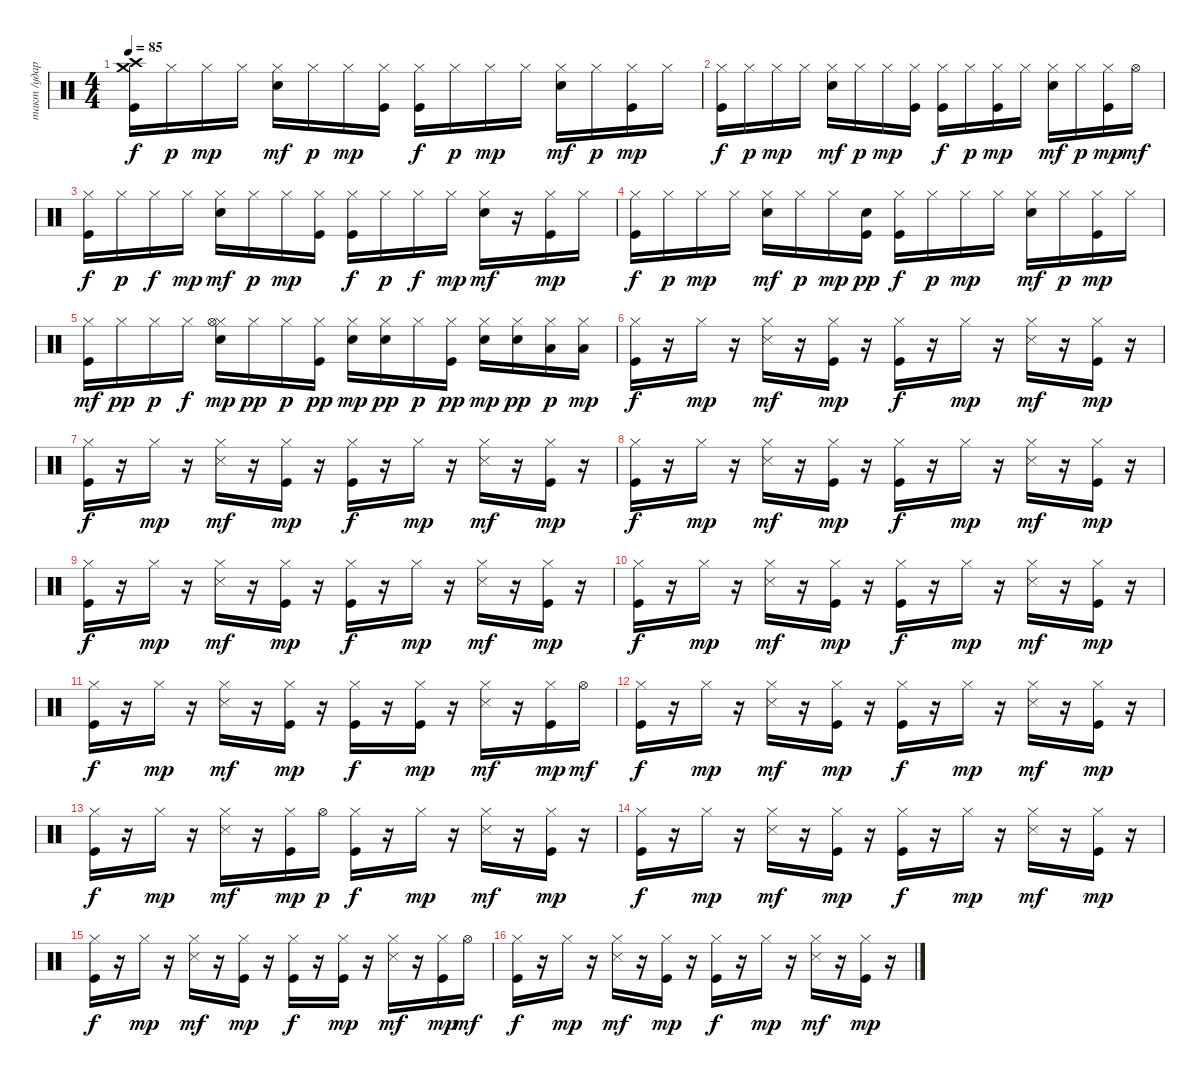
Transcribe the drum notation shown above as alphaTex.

\track ("такт /ударные/" "такт /удар") {instrument percussion}
\staff {score}
\articulation defaults
\ts (4 4)
\tempo 85
\clef neutral
\ks c
("Crash medium (hit)" "Kick (hit)" "Crash high (hit)").16{dy f} "Hi-Hat (closed)".16{dy p} "Hi-Hat (closed)".16{dy mp} "Hi-Hat (closed)".16 ("Snare (hit) 2" "Hi-Hat (closed)").16{dy mf} "Hi-Hat (closed)".16{dy p} "Hi-Hat (closed)".16{dy mp} ("Kick (hit)" "Hi-Hat (closed)").16 ("Kick (hit)" "Hi-Hat (closed)").16{dy f} "Hi-Hat (closed)".16{dy p} "Hi-Hat (closed)".16{dy mp} "Hi-Hat (closed)".16 ("Snare (hit) 2" "Hi-Hat (closed)").16{dy mf} "Hi-Hat (closed)".16{dy p} ("Kick (hit)" "Hi-Hat (closed)").16{dy mp} "Hi-Hat (closed)".16 |
("Kick (hit)" "Hi-Hat (closed)").16{dy f} "Hi-Hat (closed)".16{dy p} "Hi-Hat (closed)".16{dy mp} "Hi-Hat (closed)".16 ("Snare (hit) 2" "Hi-Hat (closed)").16{dy mf} "Hi-Hat (closed)".16{dy p} "Hi-Hat (closed)".16{dy mp} ("Kick (hit)" "Hi-Hat (closed)").16 ("Kick (hit)" "Hi-Hat (closed)").16{dy f} "Hi-Hat (closed)".16{dy p} ("Kick (hit)" "Hi-Hat (closed)").16{dy mp} "Hi-Hat (closed)".16 ("Snare (hit) 2" "Hi-Hat (closed)").16{dy mf} "Hi-Hat (closed)".16{dy p} ("Kick (hit)" "Hi-Hat (closed)").16{dy mp} "Hi-Hat (open)".16{dy mf} |
("Kick (hit)" "Hi-Hat (closed)").16{dy f} "Hi-Hat (closed)".16{dy p} "Hi-Hat (closed)".16{dy f} "Hi-Hat (closed)".16{dy mp} ("Snare (hit) 2" "Hi-Hat (closed)").16{dy mf} "Hi-Hat (closed)".16{dy p} "Hi-Hat (closed)".16{dy mp} ("Kick (hit)" "Hi-Hat (closed)").16 ("Kick (hit)" "Hi-Hat (closed)").16{dy f} "Hi-Hat (closed)".16{dy p} "Hi-Hat (closed)".16{dy f} "Hi-Hat (closed)".16{dy mp} ("Snare (hit) 2" "Hi-Hat (closed)").16{dy mf} r.16 ("Kick (hit)" "Hi-Hat (closed)").16{dy mp} "Hi-Hat (closed)".16 |
("Kick (hit)" "Hi-Hat (closed)").16{dy f} "Hi-Hat (closed)".16{dy p} "Hi-Hat (closed)".16{dy mp} "Hi-Hat (closed)".16 ("Snare (hit) 2" "Hi-Hat (closed)").16{dy mf} "Hi-Hat (closed)".16{dy p} "Hi-Hat (closed)".16{dy mp} ("Kick (hit)" "Snare (hit) 2").16{dy pp} ("Kick (hit)" "Hi-Hat (closed)").16{dy f} "Hi-Hat (closed)".16{dy p} "Hi-Hat (closed)".16{dy mp} "Hi-Hat (closed)".16 ("Snare (hit) 2" "Hi-Hat (closed)").16{dy mf} "Hi-Hat (closed)".16{dy p} ("Kick (hit)" "Hi-Hat (closed)").16{dy mp} "Hi-Hat (closed)".16 |
("Kick (hit)" "Hi-Hat (closed)").16{dy mf} "Hi-Hat (closed)".16{dy pp} "Hi-Hat (closed)".16{dy p} "Hi-Hat (closed)".16{dy f} ("Snare (hit) 2" "Hi-Hat (closed)" "Hi-Hat (open)").16{dy mp} "Hi-Hat (closed)".16{dy pp} "Hi-Hat (closed)".16{dy p} ("Kick (hit)" "Hi-Hat (closed)").16{dy pp} ("Snare (hit) 2" "Hi-Hat (closed)").16{dy mp} ("Snare (hit) 2" "Hi-Hat (closed)").16{dy pp} "Hi-Hat (closed)".16{dy p} ("Kick (hit)" "Hi-Hat (closed)").16{dy pp} ("Snare (hit) 2" "Hi-Hat (closed)").16{dy mp} ("Snare (hit) 2" "Hi-Hat (closed)").16{dy pp} ("Hi-Hat (closed)" "Low Floor Tom (hit)").16{dy p} ("Hi-Hat (closed)" "Low Floor Tom (hit)").16{dy mp} |
("Kick (hit)" "Hi-Hat (closed)").16{dy f} r.16 "Hi-Hat (closed)".16{dy mp} r.16 ("Hi-Hat (closed)" "Snare (side stick) 3").16{dy mf} r.16 ("Kick (hit)" "Hi-Hat (closed)").16{dy mp} r.16 ("Kick (hit)" "Hi-Hat (closed)").16{dy f} r.16 "Hi-Hat (closed)".16{dy mp} r.16 ("Hi-Hat (closed)" "Snare (side stick) 3").16{dy mf} r.16 ("Kick (hit)" "Hi-Hat (closed)").16{dy mp} r.16 |
("Kick (hit)" "Hi-Hat (closed)").16{dy f} r.16 "Hi-Hat (closed)".16{dy mp} r.16 ("Hi-Hat (closed)" "Snare (side stick) 3").16{dy mf} r.16 ("Kick (hit)" "Hi-Hat (closed)").16{dy mp} r.16 ("Kick (hit)" "Hi-Hat (closed)").16{dy f} r.16 "Hi-Hat (closed)".16{dy mp} r.16 ("Hi-Hat (closed)" "Snare (side stick) 3").16{dy mf} r.16 ("Kick (hit)" "Hi-Hat (closed)").16{dy mp} r.16 |
("Kick (hit)" "Hi-Hat (closed)").16{dy f} r.16 "Hi-Hat (closed)".16{dy mp} r.16 ("Hi-Hat (closed)" "Snare (side stick) 3").16{dy mf} r.16 ("Kick (hit)" "Hi-Hat (closed)").16{dy mp} r.16 ("Kick (hit)" "Hi-Hat (closed)").16{dy f} r.16 "Hi-Hat (closed)".16{dy mp} r.16 ("Hi-Hat (closed)" "Snare (side stick) 3").16{dy mf} r.16 ("Kick (hit)" "Hi-Hat (closed)").16{dy mp} r.16 |
("Kick (hit)" "Hi-Hat (closed)").16{dy f} r.16 "Hi-Hat (closed)".16{dy mp} r.16 ("Hi-Hat (closed)" "Snare (side stick) 3").16{dy mf} r.16 ("Kick (hit)" "Hi-Hat (closed)").16{dy mp} r.16 ("Kick (hit)" "Hi-Hat (closed)").16{dy f} r.16 "Hi-Hat (closed)".16{dy mp} r.16 ("Hi-Hat (closed)" "Snare (side stick) 3").16{dy mf} r.16 ("Kick (hit)" "Hi-Hat (closed)").16{dy mp} r.16 |
("Kick (hit)" "Hi-Hat (closed)").16{dy f} r.16 "Hi-Hat (closed)".16{dy mp} r.16 ("Hi-Hat (closed)" "Snare (side stick) 3").16{dy mf} r.16 ("Kick (hit)" "Hi-Hat (closed)").16{dy mp} r.16 ("Kick (hit)" "Hi-Hat (closed)").16{dy f} r.16 "Hi-Hat (closed)".16{dy mp} r.16 ("Hi-Hat (closed)" "Snare (side stick) 3").16{dy mf} r.16 ("Kick (hit)" "Hi-Hat (closed)").16{dy mp} r.16 |
("Kick (hit)" "Hi-Hat (closed)").16{dy f} r.16 "Hi-Hat (closed)".16{dy mp} r.16 ("Hi-Hat (closed)" "Snare (side stick) 3").16{dy mf} r.16 ("Kick (hit)" "Hi-Hat (closed)").16{dy mp} r.16 ("Kick (hit)" "Hi-Hat (closed)").16{dy f} r.16 ("Kick (hit)" "Hi-Hat (closed)").16{dy mp} r.16 ("Hi-Hat (closed)" "Snare (side stick) 3").16{dy mf} r.16 ("Kick (hit)" "Hi-Hat (closed)").16{dy mp} "Hi-Hat (open)".16{dy mf} |
("Kick (hit)" "Hi-Hat (closed)").16{dy f} r.16 "Hi-Hat (closed)".16{dy mp} r.16 ("Hi-Hat (closed)" "Snare (side stick) 3").16{dy mf} r.16 ("Kick (hit)" "Hi-Hat (closed)").16{dy mp} r.16 ("Kick (hit)" "Hi-Hat (closed)").16{dy f} r.16 "Hi-Hat (closed)".16{dy mp} r.16 ("Hi-Hat (closed)" "Snare (side stick) 3").16{dy mf} r.16 ("Kick (hit)" "Hi-Hat (closed)").16{dy mp} r.16 |
("Kick (hit)" "Hi-Hat (closed)").16{dy f} r.16 "Hi-Hat (closed)".16{dy mp} r.16 ("Hi-Hat (closed)" "Snare (side stick) 3").16{dy mf} r.16 ("Kick (hit)" "Hi-Hat (closed)").16{dy mp} "Hi-Hat (open)".16{dy p} ("Kick (hit)" "Hi-Hat (closed)").16{dy f} r.16 "Hi-Hat (closed)".16{dy mp} r.16 ("Hi-Hat (closed)" "Snare (side stick) 3").16{dy mf} r.16 ("Kick (hit)" "Hi-Hat (closed)").16{dy mp} r.16 |
("Kick (hit)" "Hi-Hat (closed)").16{dy f} r.16 "Hi-Hat (closed)".16{dy mp} r.16 ("Hi-Hat (closed)" "Snare (side stick) 3").16{dy mf} r.16 ("Kick (hit)" "Hi-Hat (closed)").16{dy mp} r.16 ("Kick (hit)" "Hi-Hat (closed)").16{dy f} r.16 "Hi-Hat (closed)".16{dy mp} r.16 ("Hi-Hat (closed)" "Snare (side stick) 3").16{dy mf} r.16 ("Kick (hit)" "Hi-Hat (closed)").16{dy mp} r.16 |
("Kick (hit)" "Hi-Hat (closed)").16{dy f} r.16 "Hi-Hat (closed)".16{dy mp} r.16 ("Hi-Hat (closed)" "Snare (side stick) 3").16{dy mf} r.16 ("Kick (hit)" "Hi-Hat (closed)").16{dy mp} r.16 ("Kick (hit)" "Hi-Hat (closed)").16{dy f} r.16 ("Kick (hit)" "Hi-Hat (closed)").16{dy mp} r.16 ("Hi-Hat (closed)" "Snare (side stick) 3").16{dy mf} r.16 ("Kick (hit)" "Hi-Hat (closed)").16{dy mp} "Hi-Hat (open)".16{dy mf} |
("Kick (hit)" "Hi-Hat (closed)").16{dy f} r.16 "Hi-Hat (closed)".16{dy mp} r.16 ("Hi-Hat (closed)" "Snare (side stick) 3").16{dy mf} r.16 ("Kick (hit)" "Hi-Hat (closed)").16{dy mp} r.16 ("Kick (hit)" "Hi-Hat (closed)").16{dy f} r.16 "Hi-Hat (closed)".16{dy mp} r.16 ("Hi-Hat (closed)" "Snare (side stick) 3").16{dy mf} r.16 ("Kick (hit)" "Hi-Hat (closed)").16{dy mp} r.16
